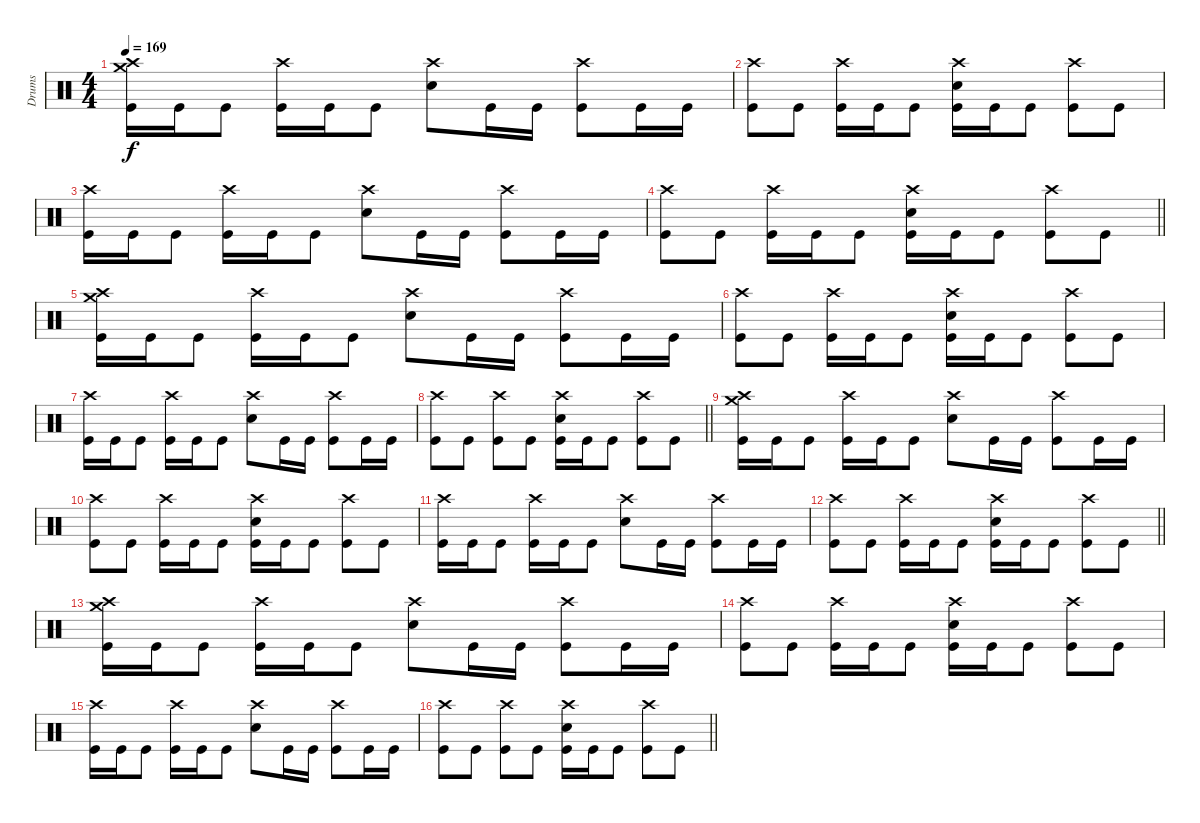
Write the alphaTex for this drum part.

\track ("Drums" "Drums") {instrument percussion}
\staff
\articulation defaults
\ts (4 4)
\tempo 169
\clef neutral
\ks c
("Crash high (hit)" "Crash medium (hit)" "Kick (hit)").16{dy f} "Kick (hit)".16 "Kick (hit)".8 ("Crash high (hit)" "Kick (hit)").16 "Kick (hit)".16 "Kick (hit)".8 ("Crash high (hit)" "Electric Snare (hit)").8 "Kick (hit)".16 "Kick (hit)".16 ("Crash high (hit)" "Kick (hit)").8 "Kick (hit)".16 "Kick (hit)".16 |
("Crash high (hit)" "Kick (hit)").8 "Kick (hit)".8 ("Crash high (hit)" "Kick (hit)").16 "Kick (hit)".16 "Kick (hit)".8 ("Crash high (hit)" "Electric Snare (hit)" "Kick (hit)").16 "Kick (hit)".16 "Kick (hit)".8 ("Crash high (hit)" "Kick (hit)").8 "Kick (hit)".8 |
("Crash high (hit)" "Kick (hit)").16 "Kick (hit)".16 "Kick (hit)".8 ("Crash high (hit)" "Kick (hit)").16 "Kick (hit)".16 "Kick (hit)".8 ("Crash high (hit)" "Electric Snare (hit)").8 "Kick (hit)".16 "Kick (hit)".16 ("Crash high (hit)" "Kick (hit)").8 "Kick (hit)".16 "Kick (hit)".16 |
\barLineRight lightlight
("Crash high (hit)" "Kick (hit)").8 "Kick (hit)".8 ("Crash high (hit)" "Kick (hit)").16 "Kick (hit)".16 "Kick (hit)".8 ("Crash high (hit)" "Electric Snare (hit)" "Kick (hit)").16 "Kick (hit)".16 "Kick (hit)".8 ("Crash high (hit)" "Kick (hit)").8 "Kick (hit)".8 |
("Crash high (hit)" "Crash medium (hit)" "Kick (hit)").16 "Kick (hit)".16 "Kick (hit)".8 ("Crash high (hit)" "Kick (hit)").16 "Kick (hit)".16 "Kick (hit)".8 ("Crash high (hit)" "Electric Snare (hit)").8 "Kick (hit)".16 "Kick (hit)".16 ("Crash high (hit)" "Kick (hit)").8 "Kick (hit)".16 "Kick (hit)".16 |
("Crash high (hit)" "Kick (hit)").8 "Kick (hit)".8 ("Crash high (hit)" "Kick (hit)").16 "Kick (hit)".16 "Kick (hit)".8 ("Crash high (hit)" "Electric Snare (hit)" "Kick (hit)").16 "Kick (hit)".16 "Kick (hit)".8 ("Crash high (hit)" "Kick (hit)").8 "Kick (hit)".8 |
("Crash high (hit)" "Kick (hit)").16 "Kick (hit)".16 "Kick (hit)".8 ("Crash high (hit)" "Kick (hit)").16 "Kick (hit)".16 "Kick (hit)".8 ("Crash high (hit)" "Electric Snare (hit)").8 "Kick (hit)".16 "Kick (hit)".16 ("Crash high (hit)" "Kick (hit)").8 "Kick (hit)".16 "Kick (hit)".16 |
\barLineRight lightlight
("Crash high (hit)" "Kick (hit)").8 "Kick (hit)".8 ("Crash high (hit)" "Kick (hit)").8 "Kick (hit)".8 ("Crash high (hit)" "Electric Snare (hit)" "Kick (hit)").16 "Kick (hit)".16 "Kick (hit)".8 ("Crash high (hit)" "Kick (hit)").8 "Kick (hit)".8 |
("Crash high (hit)" "Crash medium (hit)" "Kick (hit)").16 "Kick (hit)".16 "Kick (hit)".8 ("Crash high (hit)" "Kick (hit)").16 "Kick (hit)".16 "Kick (hit)".8 ("Crash high (hit)" "Electric Snare (hit)").8 "Kick (hit)".16 "Kick (hit)".16 ("Crash high (hit)" "Kick (hit)").8 "Kick (hit)".16 "Kick (hit)".16 |
("Crash high (hit)" "Kick (hit)").8 "Kick (hit)".8 ("Crash high (hit)" "Kick (hit)").16 "Kick (hit)".16 "Kick (hit)".8 ("Crash high (hit)" "Electric Snare (hit)" "Kick (hit)").16 "Kick (hit)".16 "Kick (hit)".8 ("Crash high (hit)" "Kick (hit)").8 "Kick (hit)".8 |
("Crash high (hit)" "Kick (hit)").16 "Kick (hit)".16 "Kick (hit)".8 ("Crash high (hit)" "Kick (hit)").16 "Kick (hit)".16 "Kick (hit)".8 ("Crash high (hit)" "Electric Snare (hit)").8 "Kick (hit)".16 "Kick (hit)".16 ("Crash high (hit)" "Kick (hit)").8 "Kick (hit)".16 "Kick (hit)".16 |
\barLineRight lightlight
("Crash high (hit)" "Kick (hit)").8 "Kick (hit)".8 ("Crash high (hit)" "Kick (hit)").16 "Kick (hit)".16 "Kick (hit)".8 ("Crash high (hit)" "Electric Snare (hit)" "Kick (hit)").16 "Kick (hit)".16 "Kick (hit)".8 ("Crash high (hit)" "Kick (hit)").8 "Kick (hit)".8 |
("Crash high (hit)" "Crash medium (hit)" "Kick (hit)").16 "Kick (hit)".16 "Kick (hit)".8 ("Crash high (hit)" "Kick (hit)").16 "Kick (hit)".16 "Kick (hit)".8 ("Crash high (hit)" "Electric Snare (hit)").8 "Kick (hit)".16 "Kick (hit)".16 ("Crash high (hit)" "Kick (hit)").8 "Kick (hit)".16 "Kick (hit)".16 |
("Crash high (hit)" "Kick (hit)").8 "Kick (hit)".8 ("Crash high (hit)" "Kick (hit)").16 "Kick (hit)".16 "Kick (hit)".8 ("Crash high (hit)" "Electric Snare (hit)" "Kick (hit)").16 "Kick (hit)".16 "Kick (hit)".8 ("Crash high (hit)" "Kick (hit)").8 "Kick (hit)".8 |
("Crash high (hit)" "Kick (hit)").16 "Kick (hit)".16 "Kick (hit)".8 ("Crash high (hit)" "Kick (hit)").16 "Kick (hit)".16 "Kick (hit)".8 ("Crash high (hit)" "Electric Snare (hit)").8 "Kick (hit)".16 "Kick (hit)".16 ("Crash high (hit)" "Kick (hit)").8 "Kick (hit)".16 "Kick (hit)".16 |
\barLineRight lightlight
("Crash high (hit)" "Kick (hit)").8 "Kick (hit)".8 ("Crash high (hit)" "Kick (hit)").8 "Kick (hit)".8 ("Crash high (hit)" "Electric Snare (hit)" "Kick (hit)").16 "Kick (hit)".16 "Kick (hit)".8 ("Crash high (hit)" "Kick (hit)").8 "Kick (hit)".8
